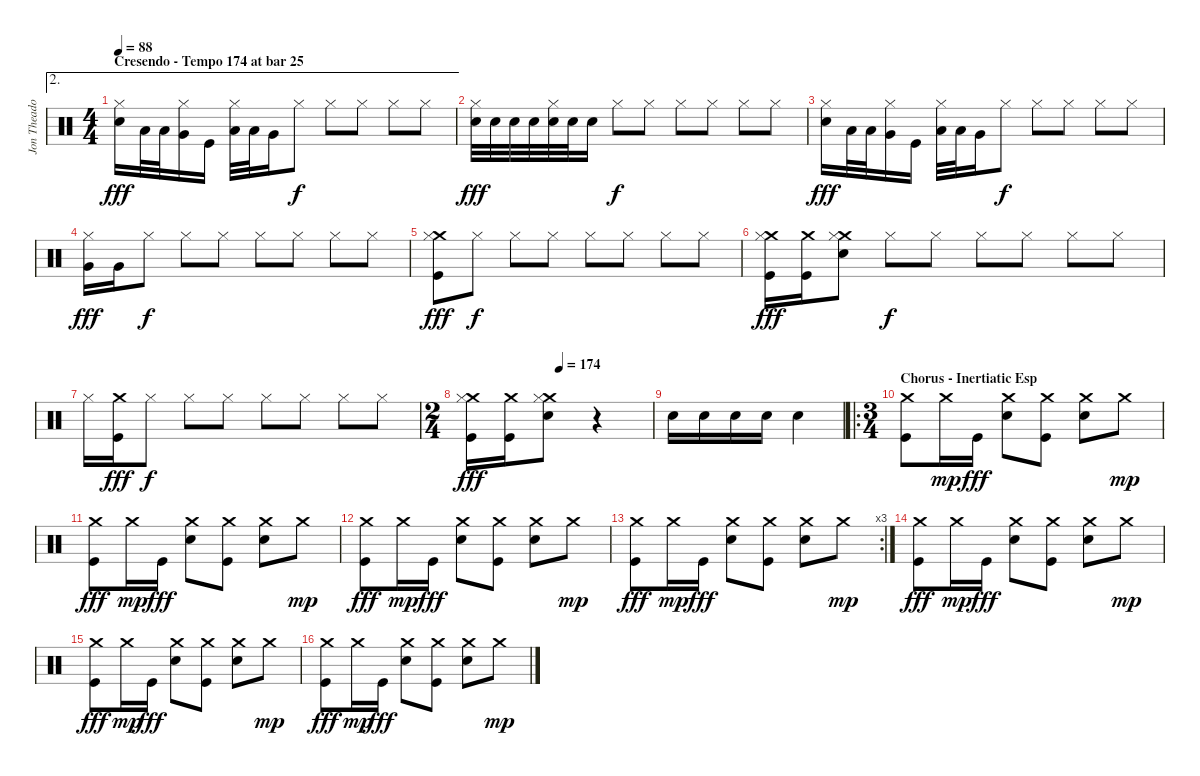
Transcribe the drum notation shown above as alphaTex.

\track ("Jon Theadore - Drums" "Jon Theado") {instrument percussion}
\staff {score}
\articulation defaults
\ae 2
\ts (4 4)
\section ("" "Cresendo - Tempo 174 at bar 25")
\tempo 88
\clef neutral
\ks c
("Hi-Hat (closed)" "Snare (hit) 2").16{dy fff} "Low Tom (hit)".32 "Low Tom (hit)".32 ("Hi-Hat (closed)" "Very Low Tom (hit)").16 "Kick (hit)".16 ("Hi-Hat (closed)" "Low Tom (hit)").32 "Low Tom (hit)".32 "Very Low Tom (hit)".16 "Hi-Hat (closed)".8{dy f} "Hi-Hat (closed)".8 "Hi-Hat (closed)".8 "Hi-Hat (closed)".8 "Hi-Hat (closed)".8 |
("Hi-Hat (closed)" "Snare (hit) 2").32{dy fff} "Snare (hit) 2".32 "Snare (hit) 2".32 "Snare (hit) 2".32 ("Hi-Hat (closed)" "Snare (hit) 2").32 "Snare (hit) 2".32 "Snare (hit) 2".16 "Hi-Hat (closed)".8{dy f} "Hi-Hat (closed)".8 "Hi-Hat (closed)".8 "Hi-Hat (closed)".8 "Hi-Hat (closed)".8 "Hi-Hat (closed)".8 |
("Hi-Hat (closed)" "Snare (hit) 2").16{dy fff} "Low Tom (hit)".32 "Low Tom (hit)".32 ("Hi-Hat (closed)" "Very Low Tom (hit)").16 "Kick (hit)".16 ("Hi-Hat (closed)" "Low Tom (hit)").32 "Low Tom (hit)".32 "Very Low Tom (hit)".16 "Hi-Hat (closed)".8{dy f} "Hi-Hat (closed)".8 "Hi-Hat (closed)".8 "Hi-Hat (closed)".8 "Hi-Hat (closed)".8 |
("Hi-Hat (closed)" "Very Low Tom (hit)").16{dy fff} "Very Low Tom (hit)".16 "Hi-Hat (closed)".8{dy f} "Hi-Hat (closed)".8 "Hi-Hat (closed)".8 "Hi-Hat (closed)".8 "Hi-Hat (closed)".8 "Hi-Hat (closed)".8 "Hi-Hat (closed)".8 |
("Crash medium (hit)" "Hi-Hat (closed)" "Kick (hit)").8{dy fff} "Hi-Hat (closed)".8{dy f} "Hi-Hat (closed)".8 "Hi-Hat (closed)".8 "Hi-Hat (closed)".8 "Hi-Hat (closed)".8 "Hi-Hat (closed)".8 "Hi-Hat (closed)".8 |
("Crash medium (hit)" "Hi-Hat (closed)" "Kick (hit)").16{dy fff} ("Crash medium (hit)" "Kick (hit)").16 ("Crash medium (hit)" "Hi-Hat (closed)" "Snare (hit) 2").8 "Hi-Hat (closed)".8{dy f} "Hi-Hat (closed)".8 "Hi-Hat (closed)".8 "Hi-Hat (closed)".8 "Hi-Hat (closed)".8 "Hi-Hat (closed)".8 |
"Hi-Hat (closed)".16 ("Crash medium (hit)" "Kick (hit)").16{dy fff} "Hi-Hat (closed)".8{dy f} "Hi-Hat (closed)".8 "Hi-Hat (closed)".8 "Hi-Hat (closed)".8 "Hi-Hat (closed)".8 "Hi-Hat (closed)".8 "Hi-Hat (closed)".8 |
\ts (2 4)
\tempo (174 0.5)
("Crash medium (hit)" "Hi-Hat (closed)" "Kick (hit)").16{dy fff} ("Crash medium (hit)" "Kick (hit)").16 ("Crash medium (hit)" "Hi-Hat (closed)" "Snare (hit) 2").8 r.4 |
"Snare (hit) 2".16 "Snare (hit) 2".16 "Snare (hit) 2".16 "Snare (hit) 2".16 "Snare (hit) 2".4 |
\ro
\ts (3 4)
\section ("" "Chorus - Inertiatic Esp")
("Crash medium (hit)" "Kick (hit)").8 "Crash medium (hit)".16{dy mp} "Kick (hit)".16{dy fff} ("Crash medium (hit)" "Snare (hit) 2").8 ("Crash medium (hit)" "Kick (hit)").8 ("Crash medium (hit)" "Snare (hit) 2").8 "Crash medium (hit)".8{dy mp} |
("Crash medium (hit)" "Kick (hit)").8{dy fff} "Crash medium (hit)".16{dy mp} "Kick (hit)".16{dy fff} ("Crash medium (hit)" "Snare (hit) 2").8 ("Crash medium (hit)" "Kick (hit)").8 ("Crash medium (hit)" "Snare (hit) 2").8 "Crash medium (hit)".8{dy mp} |
("Crash medium (hit)" "Kick (hit)").8{dy fff} "Crash medium (hit)".16{dy mp} "Kick (hit)".16{dy fff} ("Crash medium (hit)" "Snare (hit) 2").8 ("Crash medium (hit)" "Kick (hit)").8 ("Crash medium (hit)" "Snare (hit) 2").8 "Crash medium (hit)".8{dy mp} |
\rc 3
("Crash medium (hit)" "Kick (hit)").8{dy fff} "Crash medium (hit)".16{dy mp} "Kick (hit)".16{dy fff} ("Crash medium (hit)" "Snare (hit) 2").8 ("Crash medium (hit)" "Kick (hit)").8 ("Crash medium (hit)" "Snare (hit) 2").8 "Crash medium (hit)".8{dy mp} |
("Crash medium (hit)" "Kick (hit)").8{dy fff} "Crash medium (hit)".16{dy mp} "Kick (hit)".16{dy fff} ("Crash medium (hit)" "Snare (hit) 2").8 ("Crash medium (hit)" "Kick (hit)").8 ("Crash medium (hit)" "Snare (hit) 2").8 "Crash medium (hit)".8{dy mp} |
("Crash medium (hit)" "Kick (hit)").8{dy fff} "Crash medium (hit)".16{dy mp} "Kick (hit)".16{dy fff} ("Crash medium (hit)" "Snare (hit) 2").8 ("Crash medium (hit)" "Kick (hit)").8 ("Crash medium (hit)" "Snare (hit) 2").8 "Crash medium (hit)".8{dy mp} |
("Crash medium (hit)" "Kick (hit)").8{dy fff} "Crash medium (hit)".16{dy mp} "Kick (hit)".16{dy fff} ("Crash medium (hit)" "Snare (hit) 2").8 ("Crash medium (hit)" "Kick (hit)").8 ("Crash medium (hit)" "Snare (hit) 2").8 "Crash medium (hit)".8{dy mp}
